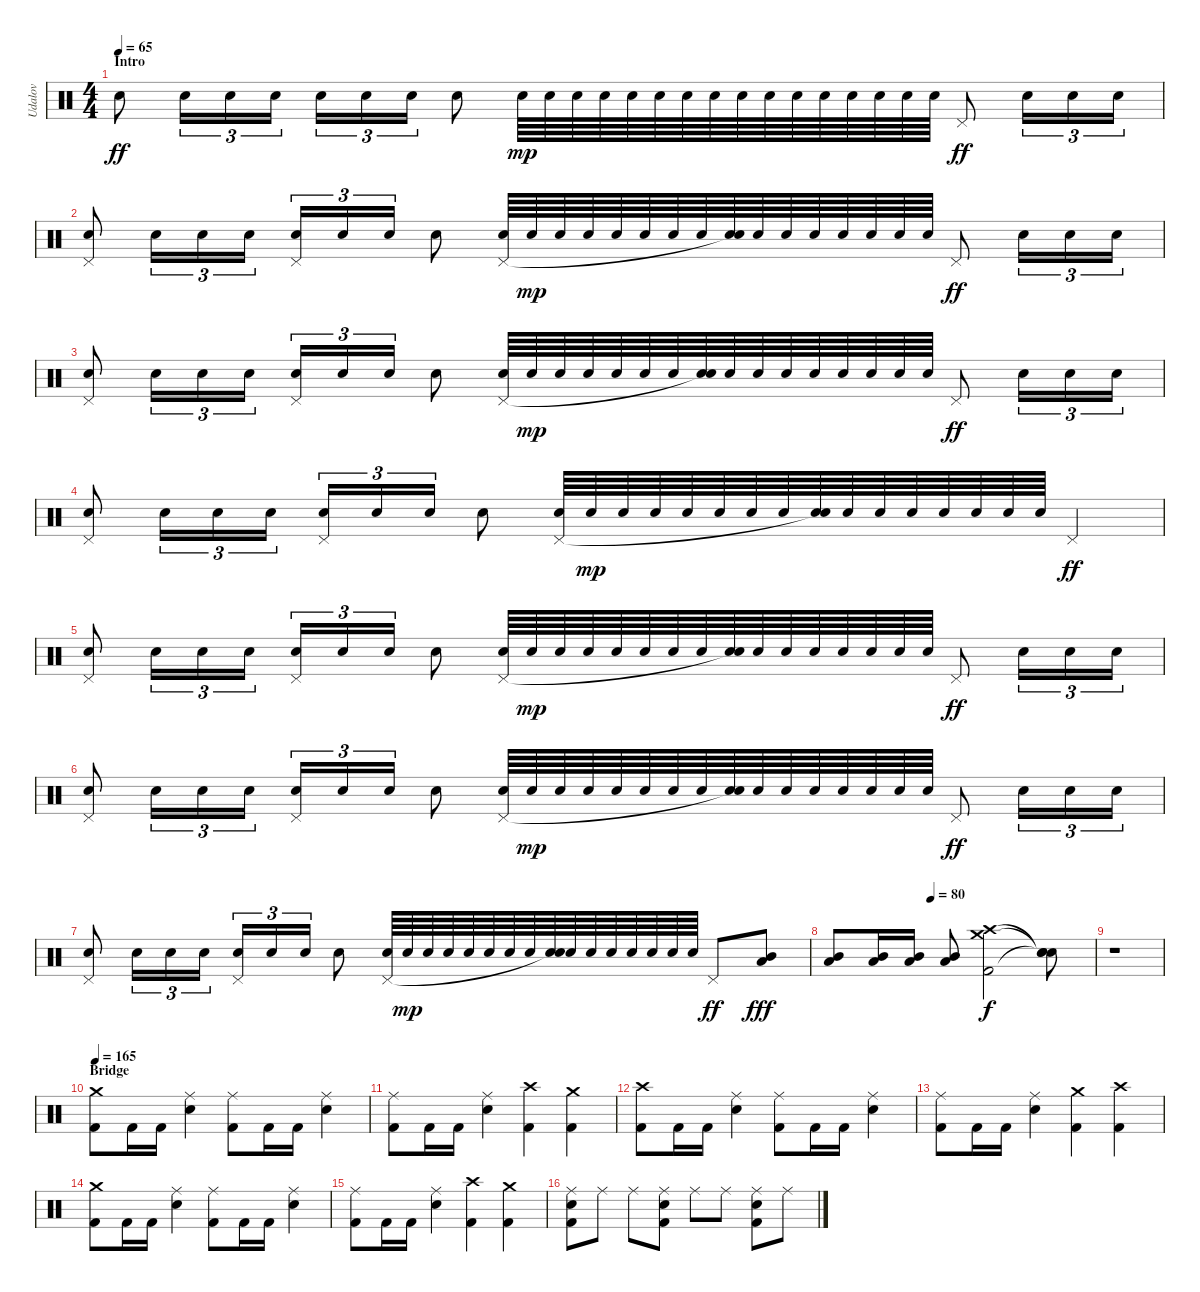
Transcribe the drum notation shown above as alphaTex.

\track ("Udalov" "Udalov") {instrument percussion}
\staff {score}
\articulation defaults
\ts (4 4)
\section ("" "Intro")
\tempo 65
\clef neutral
\ks c "Electric Snare (hit)".8{dy ff} "Electric Snare (hit)".16{tu (3 2)} "Electric Snare (hit)".16{tu (3 2)} "Electric Snare (hit)".16{tu (3 2)} "Electric Snare (hit)".16{tu (3 2)} "Electric Snare (hit)".16{tu (3 2)} "Electric Snare (hit)".16{tu (3 2)} "Electric Snare (hit)".8 "Electric Snare (hit)".64{dy mp} "Electric Snare (hit)".64 "Electric Snare (hit)".64 "Electric Snare (hit)".64 "Electric Snare (hit)".64 "Electric Snare (hit)".64 "Electric Snare (hit)".64 "Electric Snare (hit)".64 "Electric Snare (hit)".64 "Electric Snare (hit)".64 "Electric Snare (hit)".64 "Electric Snare (hit)".64 "Electric Snare (hit)".64 "Electric Snare (hit)".64 "Electric Snare (hit)".64 "Electric Snare (hit)".64 "Pedal Hi-Hat (hit)".8{dy ff} "Electric Snare (hit)".16{tu (3 2)} "Electric Snare (hit)".16{tu (3 2)} "Electric Snare (hit)".16{tu (3 2)}
|
("Electric Snare (hit)" "Pedal Hi-Hat (hit)").8 "Electric Snare (hit)".16{tu (3 2)} "Electric Snare (hit)".16{tu (3 2)} "Electric Snare (hit)".16{tu (3 2)} ("Electric Snare (hit)" "Pedal Hi-Hat (hit)").16{tu (3 2)} "Electric Snare (hit)".16{tu (3 2)} "Electric Snare (hit)".16{tu (3 2)} "Electric Snare (hit)".8 ("Electric Snare (hit)" "Pedal Hi-Hat (hit)").64 "Electric Snare (hit)".64{dy mp} "Electric Snare (hit)".64 "Electric Snare (hit)".64 "Electric Snare (hit)".64 "Electric Snare (hit)".64 "Electric Snare (hit)".64 "Electric Snare (hit)".64 ("Electric Snare (hit)" "Snare (hit)"{t}).64 "Electric Snare (hit)".64 "Electric Snare (hit)".64 "Electric Snare (hit)".64 "Electric Snare (hit)".64 "Electric Snare (hit)".64 "Electric Snare (hit)".64 "Electric Snare (hit)".64 "Pedal Hi-Hat (hit)".8{dy ff} "Electric Snare (hit)".16{tu (3 2)} "Electric Snare (hit)".16{tu (3 2)} "Electric Snare (hit)".16{tu (3 2)} |
("Electric Snare (hit)" "Pedal Hi-Hat (hit)").8 "Electric Snare (hit)".16{tu (3 2)} "Electric Snare (hit)".16{tu (3 2)} "Electric Snare (hit)".16{tu (3 2)} ("Electric Snare (hit)" "Pedal Hi-Hat (hit)").16{tu (3 2)} "Electric Snare (hit)".16{tu (3 2)} "Electric Snare (hit)".16{tu (3 2)} "Electric Snare (hit)".8 ("Electric Snare (hit)" "Pedal Hi-Hat (hit)").64 "Electric Snare (hit)".64{dy mp} "Electric Snare (hit)".64 "Electric Snare (hit)".64 "Electric Snare (hit)".64 "Electric Snare (hit)".64 "Electric Snare (hit)".64 ("Electric Snare (hit)" "Snare (hit)"{t}).64 "Electric Snare (hit)".64 "Electric Snare (hit)".64 "Electric Snare (hit)".64 "Electric Snare (hit)".64 "Electric Snare (hit)".64 "Electric Snare (hit)".64 "Electric Snare (hit)".64 "Electric Snare (hit)".64 "Pedal Hi-Hat (hit)".8{dy ff} "Electric Snare (hit)".16{tu (3 2)} "Electric Snare (hit)".16{tu (3 2)} "Electric Snare (hit)".16{tu (3 2)} |
("Electric Snare (hit)" "Pedal Hi-Hat (hit)").8 "Electric Snare (hit)".16{tu (3 2)} "Electric Snare (hit)".16{tu (3 2)} "Electric Snare (hit)".16{tu (3 2)} ("Electric Snare (hit)" "Pedal Hi-Hat (hit)").16{tu (3 2)} "Electric Snare (hit)".16{tu (3 2)} "Electric Snare (hit)".16{tu (3 2)} "Electric Snare (hit)".8 ("Electric Snare (hit)" "Pedal Hi-Hat (hit)").64 "Electric Snare (hit)".64{dy mp} "Electric Snare (hit)".64 "Electric Snare (hit)".64 "Electric Snare (hit)".64 "Electric Snare (hit)".64 "Electric Snare (hit)".64 "Electric Snare (hit)".64 ("Electric Snare (hit)" "Snare (hit)"{t}).64 "Electric Snare (hit)".64 "Electric Snare (hit)".64 "Electric Snare (hit)".64 "Electric Snare (hit)".64 "Electric Snare (hit)".64 "Electric Snare (hit)".64 "Electric Snare (hit)".64 "Pedal Hi-Hat (hit)".4{dy ff} |
("Electric Snare (hit)" "Pedal Hi-Hat (hit)").8 "Electric Snare (hit)".16{tu (3 2)} "Electric Snare (hit)".16{tu (3 2)} "Electric Snare (hit)".16{tu (3 2)} ("Electric Snare (hit)" "Pedal Hi-Hat (hit)").16{tu (3 2)} "Electric Snare (hit)".16{tu (3 2)} "Electric Snare (hit)".16{tu (3 2)} "Electric Snare (hit)".8 ("Electric Snare (hit)" "Pedal Hi-Hat (hit)").64 "Electric Snare (hit)".64{dy mp} "Electric Snare (hit)".64 "Electric Snare (hit)".64 "Electric Snare (hit)".64 "Electric Snare (hit)".64 "Electric Snare (hit)".64 "Electric Snare (hit)".64 ("Electric Snare (hit)" "Snare (hit)"{t}).64 "Electric Snare (hit)".64 "Electric Snare (hit)".64 "Electric Snare (hit)".64 "Electric Snare (hit)".64 "Electric Snare (hit)".64 "Electric Snare (hit)".64 "Electric Snare (hit)".64 "Pedal Hi-Hat (hit)".8{dy ff} "Electric Snare (hit)".16{tu (3 2)} "Electric Snare (hit)".16{tu (3 2)} "Electric Snare (hit)".16{tu (3 2)} |
("Electric Snare (hit)" "Pedal Hi-Hat (hit)").8 "Electric Snare (hit)".16{tu (3 2)} "Electric Snare (hit)".16{tu (3 2)} "Electric Snare (hit)".16{tu (3 2)} ("Electric Snare (hit)" "Pedal Hi-Hat (hit)").16{tu (3 2)} "Electric Snare (hit)".16{tu (3 2)} "Electric Snare (hit)".16{tu (3 2)} "Electric Snare (hit)".8 ("Electric Snare (hit)" "Pedal Hi-Hat (hit)").64 "Electric Snare (hit)".64{dy mp} "Electric Snare (hit)".64 "Electric Snare (hit)".64 "Electric Snare (hit)".64 "Electric Snare (hit)".64 "Electric Snare (hit)".64 "Electric Snare (hit)".64 ("Electric Snare (hit)" "Snare (hit)"{t}).64 "Electric Snare (hit)".64 "Electric Snare (hit)".64 "Electric Snare (hit)".64 "Electric Snare (hit)".64 "Electric Snare (hit)".64 "Electric Snare (hit)".64 "Electric Snare (hit)".64 "Pedal Hi-Hat (hit)".8{dy ff} "Electric Snare (hit)".16{tu (3 2)} "Electric Snare (hit)".16{tu (3 2)} "Electric Snare (hit)".16{tu (3 2)} |
("Electric Snare (hit)" "Pedal Hi-Hat (hit)").8 "Electric Snare (hit)".16{tu (3 2)} "Electric Snare (hit)".16{tu (3 2)} "Electric Snare (hit)".16{tu (3 2)} ("Electric Snare (hit)" "Pedal Hi-Hat (hit)").16{tu (3 2)} "Electric Snare (hit)".16{tu (3 2)} "Electric Snare (hit)".16{tu (3 2)} "Electric Snare (hit)".8 ("Electric Snare (hit)" "Pedal Hi-Hat (hit)").64 "Electric Snare (hit)".64{dy mp} "Electric Snare (hit)".64 "Electric Snare (hit)".64 "Electric Snare (hit)".64 "Electric Snare (hit)".64 "Electric Snare (hit)".64 "Electric Snare (hit)".64 ("Electric Snare (hit)" "Snare (hit)"{t}).64 "Electric Snare (hit)".64 "Electric Snare (hit)".64 "Electric Snare (hit)".64 "Electric Snare (hit)".64 "Electric Snare (hit)".64 "Electric Snare (hit)".64 "Electric Snare (hit)".64 "Pedal Hi-Hat (hit)".8{dy ff} ("Mid Tom (hit)" "Low Tom (hit)").8{dy fff} |
\tempo (80 0.375)
("Mid Tom (hit)" "Low Tom (hit)").8 ("Mid Tom (hit)" "Low Tom (hit)").16 ("Low Tom (hit)" "Mid Tom (hit)").16 ("Mid Tom (hit)" "Low Tom (hit)").8 ("Kick (hit) 2" "Crash high (hit)" "Crash medium (hit)").2{dy f} ("Snare (hit)"{t} "Snare (hit)"{t} "Snare (hit)"{t}).8 |
r.1 |
\section ("" "Bridge")
\tempo 165
("Kick (hit) 2" "Crash medium (hit)").8 "Kick (hit) 2".16 "Kick (hit) 2".16 ("Snare (hit) 2" "Ride (middle)").4 ("Kick (hit) 2" "Ride (middle)").8 "Kick (hit) 2".16 "Kick (hit) 2".16 ("Snare (hit) 2" "Ride (middle)").4 |
("Kick (hit) 2" "Ride (middle)").8 "Kick (hit) 2".16 "Kick (hit) 2".16 ("Snare (hit) 2" "Ride (middle)").4 ("Kick (hit) 2" "Crash high (hit)").4 ("Kick (hit) 2" "Crash medium (hit)").4 |
("Kick (hit) 2" "Crash high (hit)").8 "Kick (hit) 2".16 "Kick (hit) 2".16 ("Snare (hit) 2" "Ride (middle)").4 ("Kick (hit) 2" "Ride (middle)").8 "Kick (hit) 2".16 "Kick (hit) 2".16 ("Snare (hit) 2" "Ride (middle)").4 |
("Kick (hit) 2" "Ride (middle)").8 "Kick (hit) 2".16 "Kick (hit) 2".16 ("Snare (hit) 2" "Ride (middle)").4 ("Kick (hit) 2" "Crash medium (hit)").4 ("Kick (hit) 2" "Crash high (hit)").4 |
("Kick (hit) 2" "Crash medium (hit)").8 "Kick (hit) 2".16 "Kick (hit) 2".16 ("Snare (hit) 2" "Ride (middle)").4 ("Kick (hit) 2" "Ride (middle)").8 "Kick (hit) 2".16 "Kick (hit) 2".16 ("Snare (hit) 2" "Ride (middle)").4 |
("Kick (hit) 2" "Ride (middle)").8 "Kick (hit) 2".16 "Kick (hit) 2".16 ("Snare (hit) 2" "Ride (middle)").4 ("Kick (hit) 2" "Crash high (hit)").4 ("Kick (hit) 2" "Crash medium (hit)").4 |
("Snare (hit) 2" "Ride (middle)" "Kick (hit) 2").8 "Ride (middle)".8 "Ride (middle)".8 ("Snare (hit) 2" "Ride (middle)" "Kick (hit) 2").8 "Ride (middle)".8 "Ride (middle)".8 ("Snare (hit) 2" "Ride (middle)" "Kick (hit) 2").8 "Ride (middle)".8
